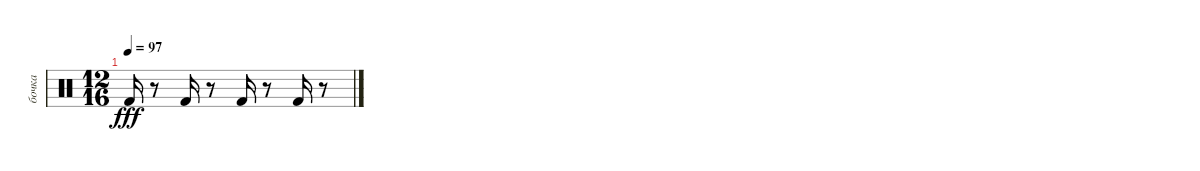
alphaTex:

\track ("бочка" "бочка") {instrument percussion}
\staff {score}
\articulation defaults
\ts (12 16)
\tempo 97
\clef neutral
\ks c "Kick (hit) 2".16{dy fff volume 6}
r.8 "Kick (hit) 2".16{volume 5} r.8 "Kick (hit) 2".16{volume 4} r.8 "Kick (hit) 2".16{volume 3} r.8
